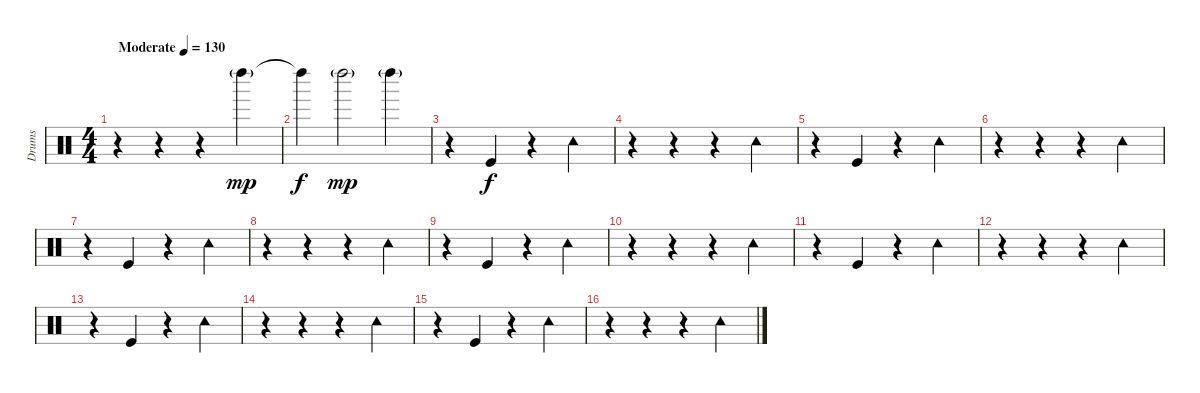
\track ("Drums" "Drums") {instrument percussion}
\staff {score}
\articulation defaults
\ts (4 4)
\tempo (130 "Moderate")
\clef neutral
\ks c
r.4{dy mp} r.4 r.4 "Left Maraca (hit)"{g}.4 |
"Left Maraca (hit)"{t}.4{dy f} "Left Maraca (hit)"{g}.2{dy mp} "Left Maraca (hit)"{g}.4 |
r.4 "Kick (hit)".4{dy f} r.4 "Tambourine (hit)".4 |
r.4 r.4 r.4 "Tambourine (hit)".4 |
r.4 "Kick (hit)".4 r.4 "Tambourine (hit)".4 |
r.4 r.4 r.4 "Tambourine (hit)".4 |
r.4 "Kick (hit)".4 r.4 "Tambourine (hit)".4 |
r.4 r.4 r.4 "Tambourine (hit)".4 |
r.4 "Kick (hit)".4 r.4 "Tambourine (hit)".4 |
r.4 r.4 r.4 "Tambourine (hit)".4 |
r.4 "Kick (hit)".4 r.4 "Tambourine (hit)".4 |
r.4 r.4 r.4 "Tambourine (hit)".4 |
r.4 "Kick (hit)".4 r.4 "Tambourine (hit)".4 |
r.4 r.4 r.4 "Tambourine (hit)".4 |
r.4 "Kick (hit)".4 r.4 "Tambourine (hit)".4 |
r.4 r.4 r.4 "Tambourine (hit)".4
